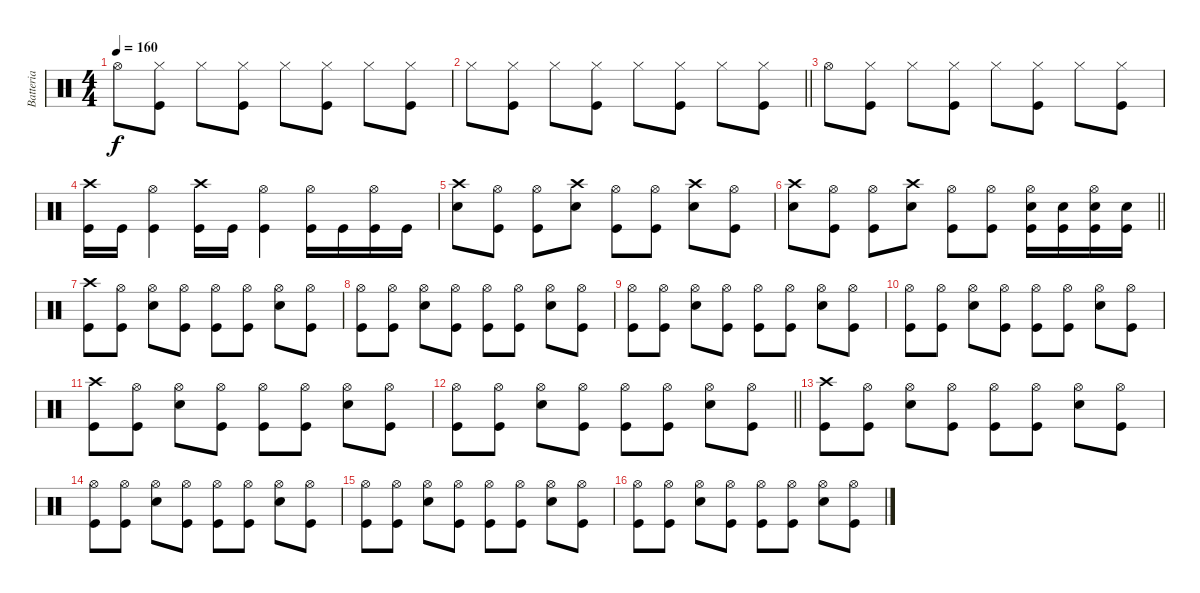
\track ("Batteria" "Batteria") {instrument percussion}
\staff {score}
\articulation defaults
\ts (4 4)
\tempo 160
\clef neutral
\ks c "Hi-Hat (open)".8{dy f}
("Kick (hit)" "Hi-Hat (closed)").8 "Hi-Hat (closed)".8 ("Kick (hit)" "Hi-Hat (closed)").8 "Hi-Hat (closed)".8 ("Kick (hit)" "Hi-Hat (closed)").8 "Hi-Hat (closed)".8 ("Kick (hit)" "Hi-Hat (closed)").8 |
\barLineRight lightlight "Hi-Hat (closed)".8
("Kick (hit)" "Hi-Hat (closed)").8 "Hi-Hat (closed)".8 ("Kick (hit)" "Hi-Hat (closed)").8 "Hi-Hat (closed)".8 ("Kick (hit)" "Hi-Hat (closed)").8 "Hi-Hat (closed)".8 ("Kick (hit)" "Hi-Hat (closed)").8 |
"Hi-Hat (open)".8 ("Kick (hit)" "Hi-Hat (closed)").8 "Hi-Hat (closed)".8 ("Kick (hit)" "Hi-Hat (closed)").8 "Hi-Hat (closed)".8 ("Kick (hit)" "Hi-Hat (closed)").8 "Hi-Hat (closed)".8 ("Kick (hit)" "Hi-Hat (closed)").8 |
("Kick (hit)" "Crash high (hit)").16 "Kick (hit)".16 ("Kick (hit)" "Hi-Hat (open)").4 ("Kick (hit)" "Crash high (hit)").16 "Kick (hit)".16 ("Kick (hit)" "Hi-Hat (open)").4 ("Kick (hit)" "Hi-Hat (open)").16 "Kick (hit)".16 ("Kick (hit)" "Hi-Hat (open)").16 "Kick (hit)".16 |
("Snare (hit) 2" "Crash high (hit)").8 ("Kick (hit)" "Hi-Hat (open)").8 ("Kick (hit)" "Hi-Hat (open)").8 ("Snare (hit) 2" "Crash high (hit)").8 ("Kick (hit)" "Hi-Hat (open)").8 ("Kick (hit)" "Hi-Hat (open)").8 ("Snare (hit) 2" "Crash high (hit)").8 ("Kick (hit)" "Hi-Hat (open)").8 |
\barLineRight lightlight
("Snare (hit) 2" "Crash high (hit)").8 ("Kick (hit)" "Hi-Hat (open)").8 ("Kick (hit)" "Hi-Hat (open)").8 ("Snare (hit) 2" "Crash high (hit)").8 ("Kick (hit)" "Hi-Hat (open)").8 ("Kick (hit)" "Hi-Hat (open)").8 ("Kick (hit)" "Snare (hit) 2" "Hi-Hat (open)").16 ("Kick (hit)" "Snare (hit) 2").16 ("Kick (hit)" "Snare (hit) 2" "Hi-Hat (open)").16 ("Kick (hit)" "Snare (hit) 2").16 |
("Kick (hit)" "Crash high (hit)").8 ("Kick (hit)" "Hi-Hat (open)").8 ("Snare (hit) 2" "Hi-Hat (open)").8 ("Kick (hit)" "Hi-Hat (open)").8 ("Kick (hit)" "Hi-Hat (open)").8 ("Kick (hit)" "Hi-Hat (open)").8 ("Snare (hit) 2" "Hi-Hat (open)").8 ("Kick (hit)" "Hi-Hat (open)").8 |
("Kick (hit)" "Hi-Hat (open)").8 ("Kick (hit)" "Hi-Hat (open)").8 ("Snare (hit) 2" "Hi-Hat (open)").8 ("Kick (hit)" "Hi-Hat (open)").8 ("Kick (hit)" "Hi-Hat (open)").8 ("Kick (hit)" "Hi-Hat (open)").8 ("Snare (hit) 2" "Hi-Hat (open)").8 ("Kick (hit)" "Hi-Hat (open)").8 |
("Kick (hit)" "Hi-Hat (open)").8 ("Kick (hit)" "Hi-Hat (open)").8 ("Snare (hit) 2" "Hi-Hat (open)").8 ("Kick (hit)" "Hi-Hat (open)").8 ("Kick (hit)" "Hi-Hat (open)").8 ("Kick (hit)" "Hi-Hat (open)").8 ("Snare (hit) 2" "Hi-Hat (open)").8 ("Kick (hit)" "Hi-Hat (open)").8 |
("Kick (hit)" "Hi-Hat (open)").8 ("Kick (hit)" "Hi-Hat (open)").8 ("Snare (hit) 2" "Hi-Hat (open)").8 ("Kick (hit)" "Hi-Hat (open)").8 ("Kick (hit)" "Hi-Hat (open)").8 ("Kick (hit)" "Hi-Hat (open)").8 ("Snare (hit) 2" "Hi-Hat (open)").8 ("Kick (hit)" "Hi-Hat (open)").8 |
("Kick (hit)" "Crash high (hit)").8 ("Kick (hit)" "Hi-Hat (open)").8 ("Snare (hit) 2" "Hi-Hat (open)").8 ("Kick (hit)" "Hi-Hat (open)").8 ("Kick (hit)" "Hi-Hat (open)").8 ("Kick (hit)" "Hi-Hat (open)").8 ("Snare (hit) 2" "Hi-Hat (open)").8 ("Kick (hit)" "Hi-Hat (open)").8 |
\barLineRight lightlight
("Kick (hit)" "Hi-Hat (open)").8 ("Kick (hit)" "Hi-Hat (open)").8 ("Snare (hit) 2" "Hi-Hat (open)").8 ("Kick (hit)" "Hi-Hat (open)").8 ("Kick (hit)" "Hi-Hat (open)").8 ("Kick (hit)" "Hi-Hat (open)").8 ("Snare (hit) 2" "Hi-Hat (open)").8 ("Kick (hit)" "Hi-Hat (open)").8 |
("Kick (hit)" "Crash high (hit)").8 ("Kick (hit)" "Hi-Hat (open)").8 ("Snare (hit) 2" "Hi-Hat (open)").8 ("Kick (hit)" "Hi-Hat (open)").8 ("Kick (hit)" "Hi-Hat (open)").8 ("Kick (hit)" "Hi-Hat (open)").8 ("Snare (hit) 2" "Hi-Hat (open)").8 ("Kick (hit)" "Hi-Hat (open)").8 |
("Kick (hit)" "Hi-Hat (open)").8 ("Kick (hit)" "Hi-Hat (open)").8 ("Snare (hit) 2" "Hi-Hat (open)").8 ("Kick (hit)" "Hi-Hat (open)").8 ("Kick (hit)" "Hi-Hat (open)").8 ("Kick (hit)" "Hi-Hat (open)").8 ("Snare (hit) 2" "Hi-Hat (open)").8 ("Kick (hit)" "Hi-Hat (open)").8 |
("Kick (hit)" "Hi-Hat (open)").8 ("Kick (hit)" "Hi-Hat (open)").8 ("Snare (hit) 2" "Hi-Hat (open)").8 ("Kick (hit)" "Hi-Hat (open)").8 ("Kick (hit)" "Hi-Hat (open)").8 ("Kick (hit)" "Hi-Hat (open)").8 ("Snare (hit) 2" "Hi-Hat (open)").8 ("Kick (hit)" "Hi-Hat (open)").8 |
("Kick (hit)" "Hi-Hat (open)").8 ("Kick (hit)" "Hi-Hat (open)").8 ("Snare (hit) 2" "Hi-Hat (open)").8 ("Kick (hit)" "Hi-Hat (open)").8 ("Kick (hit)" "Hi-Hat (open)").8 ("Kick (hit)" "Hi-Hat (open)").8 ("Snare (hit) 2" "Hi-Hat (open)").8 ("Kick (hit)" "Hi-Hat (open)").8
